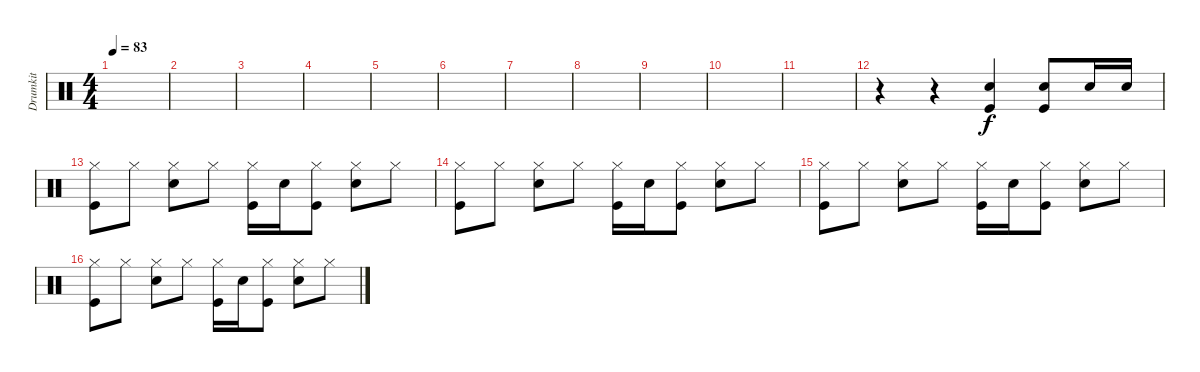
\track ("Drumkit" "Drumkit") {instrument percussion}
\staff {score}
\articulation defaults
\ts (4 4)
\tempo 83
\clef neutral
\ks c
|
|
|
|
|
|
|
|
|
|
|
r.4 r.4 ("Snare (hit) 2" "Kick (hit)").4 ("Snare (hit) 2" "Kick (hit)").8 "Snare (hit) 2".16 "Snare (hit) 2".16{dy f} |
("Kick (hit)" "Hi-Hat (closed)").8 "Hi-Hat (closed)".8 ("Snare (hit) 2" "Hi-Hat (closed)").8 "Hi-Hat (closed)".8 ("Kick (hit)" "Hi-Hat (closed)").16 "Snare (hit) 2".16 ("Kick (hit)" "Hi-Hat (closed)").8 ("Snare (hit) 2" "Hi-Hat (closed)").8 "Hi-Hat (closed)".8 |
("Kick (hit)" "Hi-Hat (closed)").8 "Hi-Hat (closed)".8 ("Snare (hit) 2" "Hi-Hat (closed)").8 "Hi-Hat (closed)".8 ("Kick (hit)" "Hi-Hat (closed)").16 "Snare (hit) 2".16 ("Kick (hit)" "Hi-Hat (closed)").8 ("Snare (hit) 2" "Hi-Hat (closed)").8 "Hi-Hat (closed)".8 |
("Kick (hit)" "Hi-Hat (closed)").8 "Hi-Hat (closed)".8 ("Snare (hit) 2" "Hi-Hat (closed)").8 "Hi-Hat (closed)".8 ("Kick (hit)" "Hi-Hat (closed)").16 "Snare (hit) 2".16 ("Kick (hit)" "Hi-Hat (closed)").8 ("Snare (hit) 2" "Hi-Hat (closed)").8 "Hi-Hat (closed)".8 |
("Kick (hit)" "Hi-Hat (closed)").8 "Hi-Hat (closed)".8 ("Snare (hit) 2" "Hi-Hat (closed)").8 "Hi-Hat (closed)".8 ("Kick (hit)" "Hi-Hat (closed)").16 "Snare (hit) 2".16 ("Kick (hit)" "Hi-Hat (closed)").8 ("Snare (hit) 2" "Hi-Hat (closed)").8 "Hi-Hat (closed)".8
